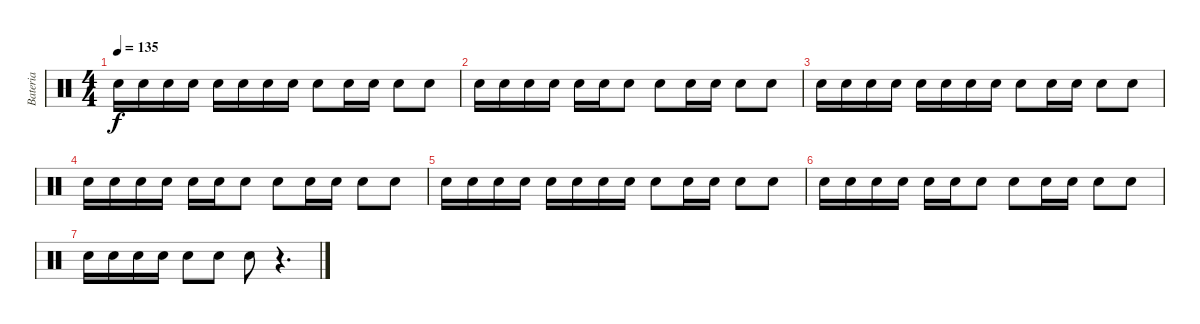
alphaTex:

\track ("Bateria" "Bateria") {instrument percussion}
\staff {score}
\articulation defaults
\ts (4 4)
\tempo 135
\clef neutral
\ks c "Electric Snare (hit)".16{dy f} "Electric Snare (hit)".16 "Electric Snare (hit)".16 "Electric Snare (hit)".16 "Electric Snare (hit)".16 "Electric Snare (hit)".16 "Electric Snare (hit)".16 "Electric Snare (hit)".16 "Electric Snare (hit)".8 "Electric Snare (hit)".16 "Electric Snare (hit)".16 "Electric Snare (hit)".8 "Electric Snare (hit)".8
|
"Electric Snare (hit)".16 "Electric Snare (hit)".16 "Electric Snare (hit)".16 "Electric Snare (hit)".16 "Electric Snare (hit)".16 "Electric Snare (hit)".16 "Electric Snare (hit)".8 "Electric Snare (hit)".8 "Electric Snare (hit)".16 "Electric Snare (hit)".16 "Electric Snare (hit)".8 "Electric Snare (hit)".8 |
"Electric Snare (hit)".16 "Electric Snare (hit)".16 "Electric Snare (hit)".16 "Electric Snare (hit)".16 "Electric Snare (hit)".16 "Electric Snare (hit)".16 "Electric Snare (hit)".16 "Electric Snare (hit)".16 "Electric Snare (hit)".8 "Electric Snare (hit)".16 "Electric Snare (hit)".16 "Electric Snare (hit)".8 "Electric Snare (hit)".8 |
"Electric Snare (hit)".16 "Electric Snare (hit)".16 "Electric Snare (hit)".16 "Electric Snare (hit)".16 "Electric Snare (hit)".16 "Electric Snare (hit)".16 "Electric Snare (hit)".8 "Electric Snare (hit)".8 "Electric Snare (hit)".16 "Electric Snare (hit)".16 "Electric Snare (hit)".8 "Electric Snare (hit)".8 |
"Electric Snare (hit)".16 "Electric Snare (hit)".16 "Electric Snare (hit)".16 "Electric Snare (hit)".16 "Electric Snare (hit)".16 "Electric Snare (hit)".16 "Electric Snare (hit)".16 "Electric Snare (hit)".16 "Electric Snare (hit)".8 "Electric Snare (hit)".16 "Electric Snare (hit)".16 "Electric Snare (hit)".8 "Electric Snare (hit)".8 |
"Electric Snare (hit)".16 "Electric Snare (hit)".16 "Electric Snare (hit)".16 "Electric Snare (hit)".16 "Electric Snare (hit)".16 "Electric Snare (hit)".16 "Electric Snare (hit)".8 "Electric Snare (hit)".8 "Electric Snare (hit)".16 "Electric Snare (hit)".16 "Electric Snare (hit)".8 "Electric Snare (hit)".8 |
"Electric Snare (hit)".16 "Electric Snare (hit)".16 "Electric Snare (hit)".16 "Electric Snare (hit)".16 "Electric Snare (hit)".8 "Electric Snare (hit)".8 "Electric Snare (hit)".8 r.4{d}
